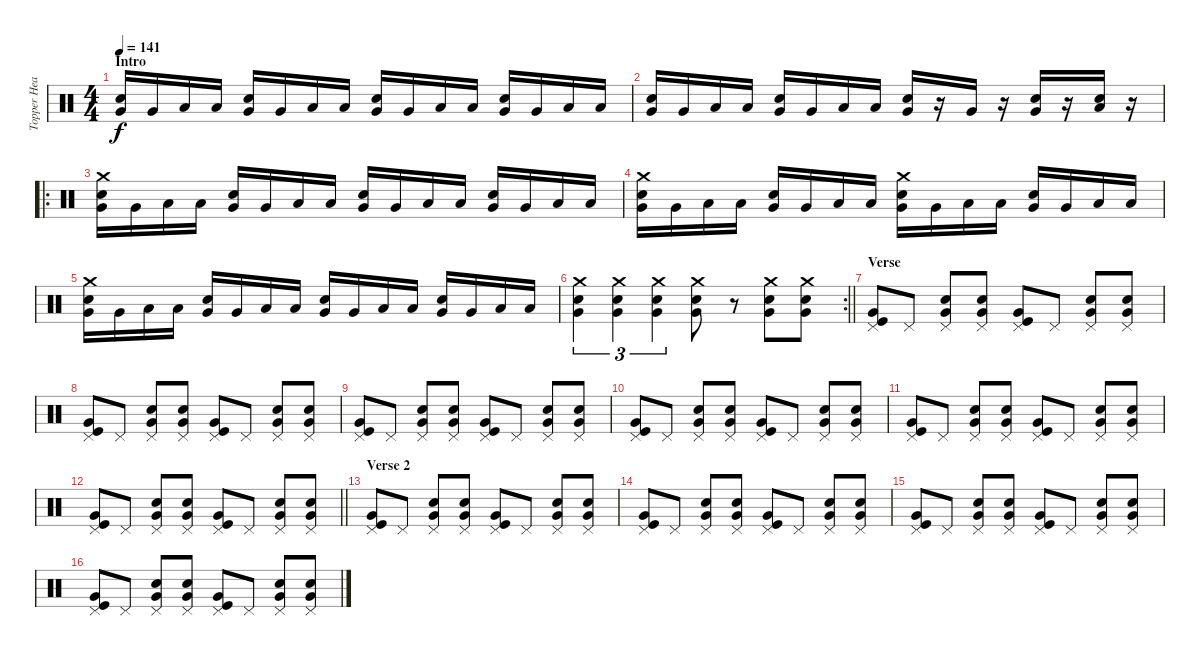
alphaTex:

\track ("Topper Headon - Drums" "Topper Hea") {instrument percussion}
\staff {score}
\articulation defaults
\ts (4 4)
\section ("" "Intro")
\tempo 141
\clef neutral
\ks c
("Snare (hit) 2" "Very Low Tom (hit)").16{dy f} "Very Low Tom (hit)".16 "Low Floor Tom (hit)".16 "Low Floor Tom (hit)".16 ("Snare (hit) 2" "Very Low Tom (hit)").16 "Very Low Tom (hit)".16 "Low Floor Tom (hit)".16 "Low Floor Tom (hit)".16 ("Snare (hit) 2" "Very Low Tom (hit)").16 "Very Low Tom (hit)".16 "Low Floor Tom (hit)".16 "Low Floor Tom (hit)".16 ("Snare (hit) 2" "Very Low Tom (hit)").16 "Very Low Tom (hit)".16 "Low Floor Tom (hit)".16 "Low Floor Tom (hit)".16 |
("Snare (hit) 2" "Very Low Tom (hit)").16 "Very Low Tom (hit)".16 "Low Floor Tom (hit)".16 "Low Floor Tom (hit)".16 ("Snare (hit) 2" "Very Low Tom (hit)").16 "Very Low Tom (hit)".16 "Low Floor Tom (hit)".16 "Low Floor Tom (hit)".16 ("Snare (hit) 2" "Very Low Tom (hit)").16 r.16 "Very Low Tom (hit)".16 r.16 ("Snare (hit) 2" "Very Low Tom (hit)").16 r.16 ("Snare (hit) 2" "Low Floor Tom (hit)").16 r.16 |
\ro
("Crash medium (hit)" "Snare (hit) 2" "Very Low Tom (hit)").16 "Very Low Tom (hit)".16 "Low Floor Tom (hit)".16 "Low Floor Tom (hit)".16 ("Snare (hit) 2" "Very Low Tom (hit)").16 "Very Low Tom (hit)".16 "Low Floor Tom (hit)".16 "Low Floor Tom (hit)".16 ("Snare (hit) 2" "Very Low Tom (hit)").16 "Very Low Tom (hit)".16 "Low Floor Tom (hit)".16 "Low Floor Tom (hit)".16 ("Snare (hit) 2" "Very Low Tom (hit)").16 "Very Low Tom (hit)".16 "Low Floor Tom (hit)".16 "Low Floor Tom (hit)".16 |
("Crash medium (hit)" "Snare (hit) 2" "Very Low Tom (hit)").16 "Very Low Tom (hit)".16 "Low Floor Tom (hit)".16 "Low Floor Tom (hit)".16 ("Snare (hit) 2" "Very Low Tom (hit)").16 "Very Low Tom (hit)".16 "Low Floor Tom (hit)".16 "Low Floor Tom (hit)".16 ("Crash medium (hit)" "Snare (hit) 2" "Very Low Tom (hit)").16 "Very Low Tom (hit)".16 "Low Floor Tom (hit)".16 "Low Floor Tom (hit)".16 ("Snare (hit) 2" "Very Low Tom (hit)").16 "Very Low Tom (hit)".16 "Low Floor Tom (hit)".16 "Low Floor Tom (hit)".16 |
("Crash medium (hit)" "Snare (hit) 2" "Very Low Tom (hit)").16 "Very Low Tom (hit)".16 "Low Floor Tom (hit)".16 "Low Floor Tom (hit)".16 ("Snare (hit) 2" "Very Low Tom (hit)").16 "Very Low Tom (hit)".16 "Low Floor Tom (hit)".16 "Low Floor Tom (hit)".16 ("Snare (hit) 2" "Very Low Tom (hit)").16 "Very Low Tom (hit)".16 "Low Floor Tom (hit)".16 "Low Floor Tom (hit)".16 ("Snare (hit) 2" "Very Low Tom (hit)").16 "Very Low Tom (hit)".16 "Low Floor Tom (hit)".16 "Low Floor Tom (hit)".16 |
\rc 2
\barLineRight lightlight
("Crash medium (hit)" "Snare (hit) 2" "Very Low Tom (hit)").4{tu (3 2)} ("Crash medium (hit)" "Snare (hit) 2" "Very Low Tom (hit)").4{tu (3 2)} ("Crash medium (hit)" "Snare (hit) 2" "Very Low Tom (hit)").4{tu (3 2)} ("Crash medium (hit)" "Snare (hit) 2" "Very Low Tom (hit)").8 r.8 ("Crash medium (hit)" "Snare (hit) 2" "Very Low Tom (hit)").8 ("Crash medium (hit)" "Snare (hit) 2" "Very Low Tom (hit)").8 |
\section ("" "Verse")
("Pedal Hi-Hat (hit)" "Very Low Tom (hit)" "Kick (hit)").8 "Pedal Hi-Hat (hit)".8 ("Pedal Hi-Hat (hit)" "Very Low Tom (hit)" "Snare (hit) 2").8 ("Pedal Hi-Hat (hit)" "Very Low Tom (hit)" "Snare (hit) 2").8 ("Pedal Hi-Hat (hit)" "Very Low Tom (hit)" "Kick (hit)").8 "Pedal Hi-Hat (hit)".8 ("Pedal Hi-Hat (hit)" "Very Low Tom (hit)" "Snare (hit) 2").8 ("Pedal Hi-Hat (hit)" "Very Low Tom (hit)" "Snare (hit) 2").8 |
("Pedal Hi-Hat (hit)" "Very Low Tom (hit)" "Kick (hit)").8 "Pedal Hi-Hat (hit)".8 ("Pedal Hi-Hat (hit)" "Very Low Tom (hit)" "Snare (hit) 2").8 ("Pedal Hi-Hat (hit)" "Very Low Tom (hit)" "Snare (hit) 2").8 ("Pedal Hi-Hat (hit)" "Very Low Tom (hit)" "Kick (hit)").8 "Pedal Hi-Hat (hit)".8 ("Pedal Hi-Hat (hit)" "Very Low Tom (hit)" "Snare (hit) 2").8 ("Pedal Hi-Hat (hit)" "Very Low Tom (hit)" "Snare (hit) 2").8 |
("Pedal Hi-Hat (hit)" "Very Low Tom (hit)" "Kick (hit)").8 "Pedal Hi-Hat (hit)".8 ("Pedal Hi-Hat (hit)" "Very Low Tom (hit)" "Snare (hit) 2").8 ("Pedal Hi-Hat (hit)" "Very Low Tom (hit)" "Snare (hit) 2").8 ("Pedal Hi-Hat (hit)" "Very Low Tom (hit)" "Kick (hit)").8 "Pedal Hi-Hat (hit)".8 ("Pedal Hi-Hat (hit)" "Very Low Tom (hit)" "Snare (hit) 2").8 ("Pedal Hi-Hat (hit)" "Very Low Tom (hit)" "Snare (hit) 2").8 |
("Pedal Hi-Hat (hit)" "Very Low Tom (hit)" "Kick (hit)").8 "Pedal Hi-Hat (hit)".8 ("Pedal Hi-Hat (hit)" "Very Low Tom (hit)" "Snare (hit) 2").8 ("Pedal Hi-Hat (hit)" "Very Low Tom (hit)" "Snare (hit) 2").8 ("Pedal Hi-Hat (hit)" "Very Low Tom (hit)" "Kick (hit)").8 "Pedal Hi-Hat (hit)".8 ("Pedal Hi-Hat (hit)" "Very Low Tom (hit)" "Snare (hit) 2").8 ("Pedal Hi-Hat (hit)" "Very Low Tom (hit)" "Snare (hit) 2").8 |
("Pedal Hi-Hat (hit)" "Very Low Tom (hit)" "Kick (hit)").8 "Pedal Hi-Hat (hit)".8 ("Pedal Hi-Hat (hit)" "Very Low Tom (hit)" "Snare (hit) 2").8 ("Pedal Hi-Hat (hit)" "Very Low Tom (hit)" "Snare (hit) 2").8 ("Pedal Hi-Hat (hit)" "Very Low Tom (hit)" "Kick (hit)").8 "Pedal Hi-Hat (hit)".8 ("Pedal Hi-Hat (hit)" "Very Low Tom (hit)" "Snare (hit) 2").8 ("Pedal Hi-Hat (hit)" "Very Low Tom (hit)" "Snare (hit) 2").8 |
\barLineRight lightlight
("Pedal Hi-Hat (hit)" "Very Low Tom (hit)" "Kick (hit)").8 "Pedal Hi-Hat (hit)".8 ("Pedal Hi-Hat (hit)" "Very Low Tom (hit)" "Snare (hit) 2").8 ("Pedal Hi-Hat (hit)" "Very Low Tom (hit)" "Snare (hit) 2").8 ("Pedal Hi-Hat (hit)" "Very Low Tom (hit)" "Kick (hit)").8 "Pedal Hi-Hat (hit)".8 ("Pedal Hi-Hat (hit)" "Very Low Tom (hit)" "Snare (hit) 2").8 ("Pedal Hi-Hat (hit)" "Very Low Tom (hit)" "Snare (hit) 2").8 |
\section ("" "Verse 2")
("Pedal Hi-Hat (hit)" "Very Low Tom (hit)" "Kick (hit)").8 "Pedal Hi-Hat (hit)".8 ("Pedal Hi-Hat (hit)" "Very Low Tom (hit)" "Snare (hit) 2").8 ("Pedal Hi-Hat (hit)" "Very Low Tom (hit)" "Snare (hit) 2").8 ("Pedal Hi-Hat (hit)" "Very Low Tom (hit)" "Kick (hit)").8 "Pedal Hi-Hat (hit)".8 ("Pedal Hi-Hat (hit)" "Very Low Tom (hit)" "Snare (hit) 2").8 ("Pedal Hi-Hat (hit)" "Very Low Tom (hit)" "Snare (hit) 2").8 |
("Pedal Hi-Hat (hit)" "Very Low Tom (hit)" "Kick (hit)").8 "Pedal Hi-Hat (hit)".8 ("Pedal Hi-Hat (hit)" "Very Low Tom (hit)" "Snare (hit) 2").8 ("Pedal Hi-Hat (hit)" "Very Low Tom (hit)" "Snare (hit) 2").8 ("Pedal Hi-Hat (hit)" "Very Low Tom (hit)" "Kick (hit)").8 "Pedal Hi-Hat (hit)".8 ("Pedal Hi-Hat (hit)" "Very Low Tom (hit)" "Snare (hit) 2").8 ("Pedal Hi-Hat (hit)" "Very Low Tom (hit)" "Snare (hit) 2").8 |
("Pedal Hi-Hat (hit)" "Very Low Tom (hit)" "Kick (hit)").8 "Pedal Hi-Hat (hit)".8 ("Pedal Hi-Hat (hit)" "Very Low Tom (hit)" "Snare (hit) 2").8 ("Pedal Hi-Hat (hit)" "Very Low Tom (hit)" "Snare (hit) 2").8 ("Pedal Hi-Hat (hit)" "Very Low Tom (hit)" "Kick (hit)").8 "Pedal Hi-Hat (hit)".8 ("Pedal Hi-Hat (hit)" "Very Low Tom (hit)" "Snare (hit) 2").8 ("Pedal Hi-Hat (hit)" "Very Low Tom (hit)" "Snare (hit) 2").8 |
("Pedal Hi-Hat (hit)" "Very Low Tom (hit)" "Kick (hit)").8 "Pedal Hi-Hat (hit)".8 ("Pedal Hi-Hat (hit)" "Very Low Tom (hit)" "Snare (hit) 2").8 ("Pedal Hi-Hat (hit)" "Very Low Tom (hit)" "Snare (hit) 2").8 ("Pedal Hi-Hat (hit)" "Very Low Tom (hit)" "Kick (hit)").8 "Pedal Hi-Hat (hit)".8 ("Pedal Hi-Hat (hit)" "Very Low Tom (hit)" "Snare (hit) 2").8 ("Pedal Hi-Hat (hit)" "Very Low Tom (hit)" "Snare (hit) 2").8
